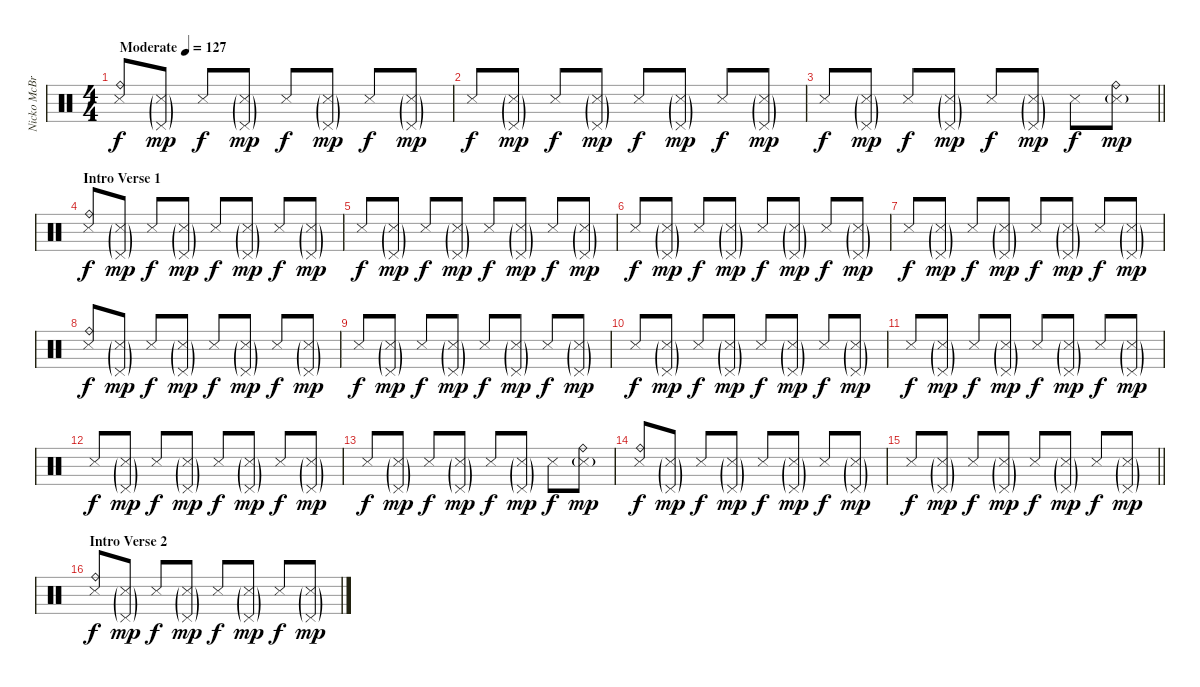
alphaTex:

\track ("Nicko McBrain" "Nicko McBr") {instrument percussion}
\staff {score}
\articulation defaults
\ts (4 4)
\tempo (127 "Moderate")
\clef neutral
\ks c
("Ride (bell)" "Snare (side stick) 3").8{dy f volume 8} ("Pedal Hi-Hat (hit)"{g} "Snare (side stick) 3"{g}).8{dy mp} "Snare (side stick) 3".8{dy f} ("Pedal Hi-Hat (hit)"{g} "Snare (side stick) 3"{g}).8{dy mp} "Snare (side stick) 3".8{dy f} ("Pedal Hi-Hat (hit)"{g} "Snare (side stick) 3"{g}).8{dy mp} "Snare (side stick) 3".8{dy f} ("Pedal Hi-Hat (hit)"{g} "Snare (side stick) 3"{g}).8{dy mp} |
"Snare (side stick) 3".8{dy f} ("Pedal Hi-Hat (hit)"{g} "Snare (side stick) 3"{g}).8{dy mp} "Snare (side stick) 3".8{dy f} ("Pedal Hi-Hat (hit)"{g} "Snare (side stick) 3"{g}).8{dy mp} "Snare (side stick) 3".8{dy f} ("Pedal Hi-Hat (hit)"{g} "Snare (side stick) 3"{g}).8{dy mp} "Snare (side stick) 3".8{dy f} ("Pedal Hi-Hat (hit)"{g} "Snare (side stick) 3"{g}).8{dy mp} |
\barLineRight lightlight "Snare (side stick) 3".8{dy f}
("Pedal Hi-Hat (hit)"{g} "Snare (side stick) 3"{g}).8{dy mp} "Snare (side stick) 3".8{dy f} ("Pedal Hi-Hat (hit)"{g} "Snare (side stick) 3"{g}).8{dy mp} "Snare (side stick) 3".8{dy f} ("Pedal Hi-Hat (hit)"{g} "Snare (side stick) 3"{g}).8{dy mp} "Snare (side stick) 3".8{dy f} ("Ride (bell)" "Snare (side stick) 3"{g}).8{dy mp} |
\section ("" "Intro Verse 1")
("Ride (bell)" "Snare (side stick) 3").8{dy f} ("Pedal Hi-Hat (hit)"{g} "Snare (side stick) 3"{g}).8{dy mp} "Snare (side stick) 3".8{dy f} ("Pedal Hi-Hat (hit)"{g} "Snare (side stick) 3"{g}).8{dy mp} "Snare (side stick) 3".8{dy f} ("Pedal Hi-Hat (hit)"{g} "Snare (side stick) 3"{g}).8{dy mp} "Snare (side stick) 3".8{dy f} ("Pedal Hi-Hat (hit)"{g} "Snare (side stick) 3"{g}).8{dy mp} |
"Snare (side stick) 3".8{dy f} ("Pedal Hi-Hat (hit)"{g} "Snare (side stick) 3"{g}).8{dy mp} "Snare (side stick) 3".8{dy f} ("Pedal Hi-Hat (hit)"{g} "Snare (side stick) 3"{g}).8{dy mp} "Snare (side stick) 3".8{dy f} ("Pedal Hi-Hat (hit)"{g} "Snare (side stick) 3"{g}).8{dy mp} "Snare (side stick) 3".8{dy f} ("Pedal Hi-Hat (hit)"{g} "Snare (side stick) 3"{g}).8{dy mp} |
"Snare (side stick) 3".8{dy f} ("Pedal Hi-Hat (hit)"{g} "Snare (side stick) 3"{g}).8{dy mp} "Snare (side stick) 3".8{dy f} ("Pedal Hi-Hat (hit)"{g} "Snare (side stick) 3"{g}).8{dy mp} "Snare (side stick) 3".8{dy f} ("Pedal Hi-Hat (hit)"{g} "Snare (side stick) 3"{g}).8{dy mp} "Snare (side stick) 3".8{dy f} ("Pedal Hi-Hat (hit)"{g} "Snare (side stick) 3"{g}).8{dy mp} |
"Snare (side stick) 3".8{dy f} ("Pedal Hi-Hat (hit)"{g} "Snare (side stick) 3"{g}).8{dy mp} "Snare (side stick) 3".8{dy f} ("Pedal Hi-Hat (hit)"{g} "Snare (side stick) 3"{g}).8{dy mp} "Snare (side stick) 3".8{dy f} ("Pedal Hi-Hat (hit)"{g} "Snare (side stick) 3"{g}).8{dy mp} "Snare (side stick) 3".8{dy f} ("Pedal Hi-Hat (hit)"{g} "Snare (side stick) 3"{g}).8{dy mp} |
("Ride (bell)" "Snare (side stick) 3").8{dy f} ("Pedal Hi-Hat (hit)"{g} "Snare (side stick) 3"{g}).8{dy mp} "Snare (side stick) 3".8{dy f} ("Pedal Hi-Hat (hit)"{g} "Snare (side stick) 3"{g}).8{dy mp} "Snare (side stick) 3".8{dy f} ("Pedal Hi-Hat (hit)"{g} "Snare (side stick) 3"{g}).8{dy mp} "Snare (side stick) 3".8{dy f} ("Pedal Hi-Hat (hit)"{g} "Snare (side stick) 3"{g}).8{dy mp} |
"Snare (side stick) 3".8{dy f} ("Pedal Hi-Hat (hit)"{g} "Snare (side stick) 3"{g}).8{dy mp} "Snare (side stick) 3".8{dy f} ("Pedal Hi-Hat (hit)"{g} "Snare (side stick) 3"{g}).8{dy mp} "Snare (side stick) 3".8{dy f} ("Pedal Hi-Hat (hit)"{g} "Snare (side stick) 3"{g}).8{dy mp} "Snare (side stick) 3".8{dy f} ("Pedal Hi-Hat (hit)"{g} "Snare (side stick) 3"{g}).8{dy mp} |
"Snare (side stick) 3".8{dy f} ("Pedal Hi-Hat (hit)"{g} "Snare (side stick) 3"{g}).8{dy mp} "Snare (side stick) 3".8{dy f} ("Pedal Hi-Hat (hit)"{g} "Snare (side stick) 3"{g}).8{dy mp} "Snare (side stick) 3".8{dy f} ("Pedal Hi-Hat (hit)"{g} "Snare (side stick) 3"{g}).8{dy mp} "Snare (side stick) 3".8{dy f} ("Pedal Hi-Hat (hit)"{g} "Snare (side stick) 3"{g}).8{dy mp} |
"Snare (side stick) 3".8{dy f} ("Pedal Hi-Hat (hit)"{g} "Snare (side stick) 3"{g}).8{dy mp} "Snare (side stick) 3".8{dy f} ("Pedal Hi-Hat (hit)"{g} "Snare (side stick) 3"{g}).8{dy mp} "Snare (side stick) 3".8{dy f} ("Pedal Hi-Hat (hit)"{g} "Snare (side stick) 3"{g}).8{dy mp} "Snare (side stick) 3".8{dy f} ("Pedal Hi-Hat (hit)"{g} "Snare (side stick) 3"{g}).8{dy mp} |
"Snare (side stick) 3".8{dy f} ("Pedal Hi-Hat (hit)"{g} "Snare (side stick) 3"{g}).8{dy mp} "Snare (side stick) 3".8{dy f} ("Pedal Hi-Hat (hit)"{g} "Snare (side stick) 3"{g}).8{dy mp} "Snare (side stick) 3".8{dy f} ("Pedal Hi-Hat (hit)"{g} "Snare (side stick) 3"{g}).8{dy mp} "Snare (side stick) 3".8{dy f} ("Pedal Hi-Hat (hit)"{g} "Snare (side stick) 3"{g}).8{dy mp} |
"Snare (side stick) 3".8{dy f} ("Pedal Hi-Hat (hit)"{g} "Snare (side stick) 3"{g}).8{dy mp} "Snare (side stick) 3".8{dy f} ("Pedal Hi-Hat (hit)"{g} "Snare (side stick) 3"{g}).8{dy mp} "Snare (side stick) 3".8{dy f} ("Pedal Hi-Hat (hit)"{g} "Snare (side stick) 3"{g}).8{dy mp} "Snare (side stick) 3".8{dy f} ("Ride (bell)" "Snare (side stick) 3"{g}).8{dy mp} |
("Ride (bell)" "Snare (side stick) 3").8{dy f} ("Pedal Hi-Hat (hit)"{g} "Snare (side stick) 3"{g}).8{dy mp} "Snare (side stick) 3".8{dy f} ("Pedal Hi-Hat (hit)"{g} "Snare (side stick) 3"{g}).8{dy mp} "Snare (side stick) 3".8{dy f} ("Pedal Hi-Hat (hit)"{g} "Snare (side stick) 3"{g}).8{dy mp} "Snare (side stick) 3".8{dy f} ("Pedal Hi-Hat (hit)"{g} "Snare (side stick) 3"{g}).8{dy mp} |
\barLineRight lightlight "Snare (side stick) 3".8{dy f}
("Pedal Hi-Hat (hit)"{g} "Snare (side stick) 3"{g}).8{dy mp} "Snare (side stick) 3".8{dy f} ("Pedal Hi-Hat (hit)"{g} "Snare (side stick) 3"{g}).8{dy mp} "Snare (side stick) 3".8{dy f} ("Pedal Hi-Hat (hit)"{g} "Snare (side stick) 3"{g}).8{dy mp} "Snare (side stick) 3".8{dy f} ("Pedal Hi-Hat (hit)"{g} "Snare (side stick) 3"{g}).8{dy mp} |
\section ("" "Intro Verse 2")
("Ride (bell)" "Snare (side stick) 3").8{dy f} ("Pedal Hi-Hat (hit)"{g} "Snare (side stick) 3"{g}).8{dy mp} "Snare (side stick) 3".8{dy f} ("Pedal Hi-Hat (hit)"{g} "Snare (side stick) 3"{g}).8{dy mp} "Snare (side stick) 3".8{dy f} ("Pedal Hi-Hat (hit)"{g} "Snare (side stick) 3"{g}).8{dy mp} "Snare (side stick) 3".8{dy f} ("Pedal Hi-Hat (hit)"{g} "Snare (side stick) 3"{g}).8{dy mp}
